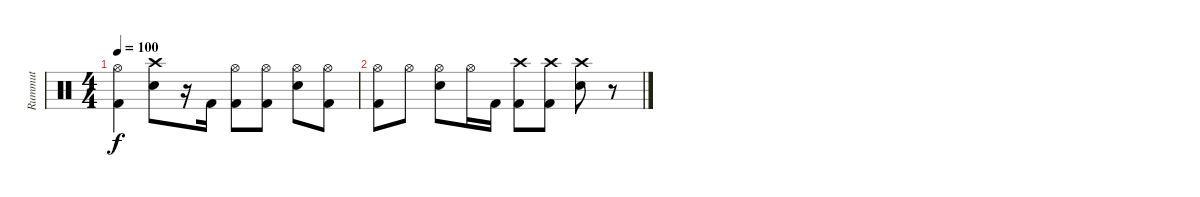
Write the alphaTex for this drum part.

\track ("Rummut" "Rummut") {instrument percussion}
\staff {score}
\articulation defaults
\ts (4 4)
\tempo 100
\clef neutral
\ks c
("Hi-Hat (open)" "Kick (hit) 2").4{dy f} ("Crash high (hit)" "Snare (hit) 2").8 r.16 "Kick (hit) 2".16 ("Hi-Hat (open)" "Kick (hit) 2").8 ("Hi-Hat (open)" "Kick (hit) 2").8 ("Hi-Hat (open)" "Snare (hit) 2").8 ("Hi-Hat (open)" "Kick (hit) 2").8 |
("Hi-Hat (open)" "Kick (hit) 2").8 "Hi-Hat (open)".8 ("Hi-Hat (open)" "Snare (hit) 2").8 "Hi-Hat (open)".16 "Kick (hit) 2".16 ("Crash high (hit)" "Kick (hit) 2").8 ("Crash high (hit)" "Kick (hit) 2").8 ("Crash high (hit)" "Snare (hit) 2").8 r.8
